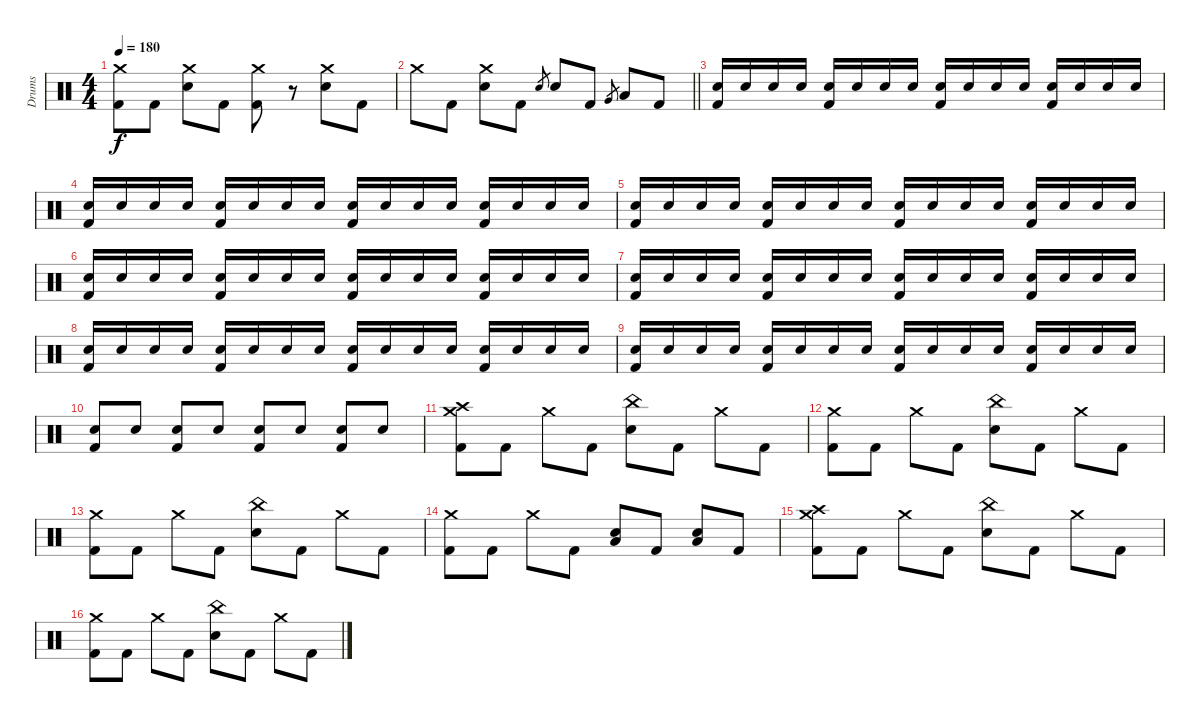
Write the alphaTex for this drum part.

\track ("Drums" "Drums") {instrument percussion}
\staff {score}
\articulation defaults
\ts (4 4)
\tempo 180
\clef neutral
\ks c
("Crash medium (hit)" "Kick (hit) 2").8{dy f} "Kick (hit) 2".8 ("Crash medium (hit)" "Electric Snare (hit)").8 "Kick (hit) 2".8 ("Crash medium (hit)" "Kick (hit) 2").8 r.8 ("Crash medium (hit)" "Electric Snare (hit)").8 "Kick (hit) 2".8 |
\barLineRight lightlight "Crash medium (hit)".8 "Kick (hit) 2".8
("Crash medium (hit)" "Electric Snare (hit)").8 "Kick (hit) 2".8 "Electric Snare (hit)".8{gr} "Electric Snare (hit)".8 "Kick (hit) 2".8 "Very Low Tom (hit)".8{gr} "Low Tom (hit)".8 "Kick (hit) 2".8 |
("Electric Snare (hit)" "Kick (hit) 2").16{volume 4} "Electric Snare (hit)".16 "Electric Snare (hit)".16 "Electric Snare (hit)".16 ("Electric Snare (hit)" "Kick (hit) 2").16 "Electric Snare (hit)".16 "Electric Snare (hit)".16 "Electric Snare (hit)".16 ("Electric Snare (hit)" "Kick (hit) 2").16 "Electric Snare (hit)".16 "Electric Snare (hit)".16 "Electric Snare (hit)".16 ("Electric Snare (hit)" "Kick (hit) 2").16 "Electric Snare (hit)".16 "Electric Snare (hit)".16 "Electric Snare (hit)".16 |
("Electric Snare (hit)" "Kick (hit) 2").16{volume 7} "Electric Snare (hit)".16 "Electric Snare (hit)".16 "Electric Snare (hit)".16 ("Electric Snare (hit)" "Kick (hit) 2").16 "Electric Snare (hit)".16 "Electric Snare (hit)".16 "Electric Snare (hit)".16 ("Electric Snare (hit)" "Kick (hit) 2").16 "Electric Snare (hit)".16 "Electric Snare (hit)".16 "Electric Snare (hit)".16 ("Electric Snare (hit)" "Kick (hit) 2").16 "Electric Snare (hit)".16 "Electric Snare (hit)".16 "Electric Snare (hit)".16 |
("Electric Snare (hit)" "Kick (hit) 2").16{volume 13} "Electric Snare (hit)".16 "Electric Snare (hit)".16 "Electric Snare (hit)".16 ("Electric Snare (hit)" "Kick (hit) 2").16 "Electric Snare (hit)".16 "Electric Snare (hit)".16 "Electric Snare (hit)".16 ("Electric Snare (hit)" "Kick (hit) 2").16 "Electric Snare (hit)".16 "Electric Snare (hit)".16 "Electric Snare (hit)".16 ("Electric Snare (hit)" "Kick (hit) 2").16 "Electric Snare (hit)".16 "Electric Snare (hit)".16 "Electric Snare (hit)".16 |
("Electric Snare (hit)" "Kick (hit) 2").16 "Electric Snare (hit)".16 "Electric Snare (hit)".16 "Electric Snare (hit)".16 ("Electric Snare (hit)" "Kick (hit) 2").16 "Electric Snare (hit)".16 "Electric Snare (hit)".16 "Electric Snare (hit)".16 ("Electric Snare (hit)" "Kick (hit) 2").16 "Electric Snare (hit)".16 "Electric Snare (hit)".16 "Electric Snare (hit)".16 ("Electric Snare (hit)" "Kick (hit) 2").16 "Electric Snare (hit)".16 "Electric Snare (hit)".16 "Electric Snare (hit)".16 |
("Electric Snare (hit)" "Kick (hit) 2").16 "Electric Snare (hit)".16 "Electric Snare (hit)".16 "Electric Snare (hit)".16 ("Electric Snare (hit)" "Kick (hit) 2").16 "Electric Snare (hit)".16 "Electric Snare (hit)".16 "Electric Snare (hit)".16 ("Electric Snare (hit)" "Kick (hit) 2").16 "Electric Snare (hit)".16 "Electric Snare (hit)".16 "Electric Snare (hit)".16 ("Electric Snare (hit)" "Kick (hit) 2").16 "Electric Snare (hit)".16 "Electric Snare (hit)".16 "Electric Snare (hit)".16 |
("Electric Snare (hit)" "Kick (hit) 2").16 "Electric Snare (hit)".16 "Electric Snare (hit)".16 "Electric Snare (hit)".16 ("Electric Snare (hit)" "Kick (hit) 2").16 "Electric Snare (hit)".16 "Electric Snare (hit)".16 "Electric Snare (hit)".16 ("Electric Snare (hit)" "Kick (hit) 2").16 "Electric Snare (hit)".16 "Electric Snare (hit)".16 "Electric Snare (hit)".16 ("Electric Snare (hit)" "Kick (hit) 2").16 "Electric Snare (hit)".16 "Electric Snare (hit)".16 "Electric Snare (hit)".16 |
("Electric Snare (hit)" "Kick (hit) 2").16 "Electric Snare (hit)".16 "Electric Snare (hit)".16 "Electric Snare (hit)".16 ("Electric Snare (hit)" "Kick (hit) 2").16 "Electric Snare (hit)".16 "Electric Snare (hit)".16 "Electric Snare (hit)".16 ("Electric Snare (hit)" "Kick (hit) 2").16 "Electric Snare (hit)".16 "Electric Snare (hit)".16 "Electric Snare (hit)".16 ("Electric Snare (hit)" "Kick (hit) 2").16 "Electric Snare (hit)".16 "Electric Snare (hit)".16 "Electric Snare (hit)".16 |
("Electric Snare (hit)" "Kick (hit) 2").8 "Electric Snare (hit)".8 ("Electric Snare (hit)" "Kick (hit) 2").8 "Electric Snare (hit)".8 ("Electric Snare (hit)" "Kick (hit) 2").8 "Electric Snare (hit)".8 ("Electric Snare (hit)" "Kick (hit) 2").8 "Electric Snare (hit)".8 |
("Crash medium (hit)" "Crash high (hit)" "Kick (hit) 2").8 "Kick (hit) 2".8 "Crash medium (hit)".8 "Kick (hit) 2".8 ("China (hit)" "Electric Snare (hit)").8 "Kick (hit) 2".8 "Crash medium (hit)".8 "Kick (hit) 2".8 |
("Crash medium (hit)" "Kick (hit) 2").8 "Kick (hit) 2".8 "Crash medium (hit)".8 "Kick (hit) 2".8 ("China (hit)" "Electric Snare (hit)").8 "Kick (hit) 2".8 "Crash medium (hit)".8 "Kick (hit) 2".8 |
("Crash medium (hit)" "Kick (hit) 2").8 "Kick (hit) 2".8 "Crash medium (hit)".8 "Kick (hit) 2".8 ("China (hit)" "Electric Snare (hit)").8 "Kick (hit) 2".8 "Crash medium (hit)".8 "Kick (hit) 2".8 |
("Crash medium (hit)" "Kick (hit) 2").8 "Kick (hit) 2".8 "Crash medium (hit)".8 "Kick (hit) 2".8 ("Low Floor Tom (hit)" "Electric Snare (hit)").8 "Kick (hit) 2".8 ("Low Floor Tom (hit)" "Electric Snare (hit)").8 "Kick (hit) 2".8 |
("Crash medium (hit)" "Crash high (hit)" "Kick (hit) 2").8 "Kick (hit) 2".8 "Crash medium (hit)".8 "Kick (hit) 2".8 ("China (hit)" "Electric Snare (hit)").8 "Kick (hit) 2".8 "Crash medium (hit)".8 "Kick (hit) 2".8 |
("Crash medium (hit)" "Kick (hit) 2").8 "Kick (hit) 2".8 "Crash medium (hit)".8 "Kick (hit) 2".8 ("China (hit)" "Electric Snare (hit)").8 "Kick (hit) 2".8 "Crash medium (hit)".8 "Kick (hit) 2".8
